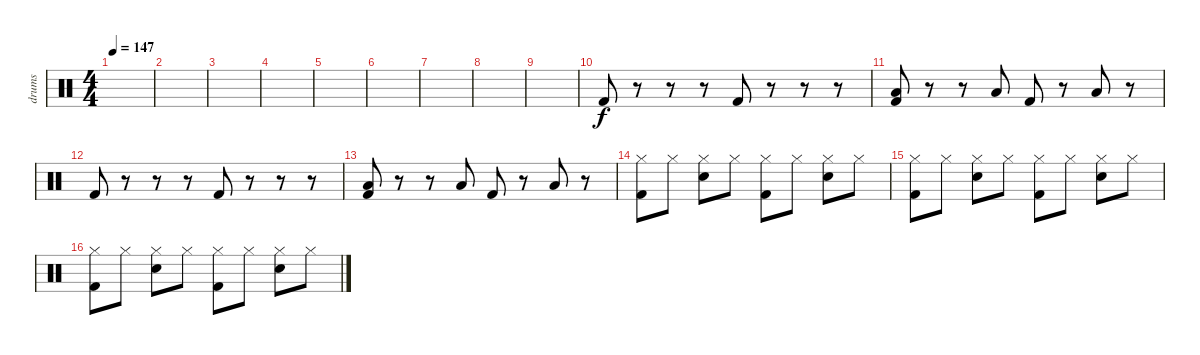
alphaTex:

\track ("drums" "drums") {instrument percussion}
\staff {score}
\articulation defaults
\ts (4 4)
\tempo 147
\clef neutral
\ks c
|
|
|
|
|
|
|
|
|
"Kick (hit) 2".8 r.8 r.8 r.8 "Kick (hit) 2".8 r.8 r.8 r.8 |
("Kick (hit) 2" "Low Floor Tom (hit)").8 r.8 r.8 "Low Floor Tom (hit)".8 "Kick (hit) 2".8 r.8 "Low Floor Tom (hit)".8 r.8 |
"Kick (hit) 2".8 r.8 r.8 r.8 "Kick (hit) 2".8 r.8 r.8 r.8 |
("Kick (hit) 2" "Low Floor Tom (hit)").8 r.8 r.8 "Low Floor Tom (hit)".8 "Kick (hit) 2".8 r.8 "Low Floor Tom (hit)".8 r.8 |
("Hi-Hat (closed)" "Kick (hit) 2").8 "Hi-Hat (closed)".8 ("Hi-Hat (closed)" "Snare (hit) 2").8 "Hi-Hat (closed)".8 ("Hi-Hat (closed)" "Kick (hit) 2").8 "Hi-Hat (closed)".8 ("Hi-Hat (closed)" "Snare (hit) 2").8 "Hi-Hat (closed)".8 |
("Hi-Hat (closed)" "Kick (hit) 2").8 "Hi-Hat (closed)".8 ("Hi-Hat (closed)" "Snare (hit) 2").8 "Hi-Hat (closed)".8 ("Hi-Hat (closed)" "Kick (hit) 2").8 "Hi-Hat (closed)".8 ("Hi-Hat (closed)" "Snare (hit) 2").8 "Hi-Hat (closed)".8 |
("Hi-Hat (closed)" "Kick (hit) 2").8 "Hi-Hat (closed)".8 ("Hi-Hat (closed)" "Snare (hit) 2").8 "Hi-Hat (closed)".8 ("Hi-Hat (closed)" "Kick (hit) 2").8 "Hi-Hat (closed)".8 ("Hi-Hat (closed)" "Snare (hit) 2").8 "Hi-Hat (closed)".8
